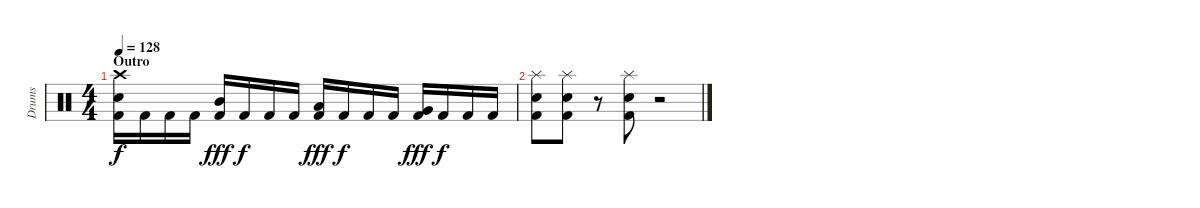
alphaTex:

\track ("Drums" "Drums") {instrument percussion}
\staff {score}
\articulation defaults
\ts (4 4)
\section ("" "Outro")
\tempo 128
\clef neutral
\ks c
("Crash high (hit)" "Electric Snare (hit)" "Kick (hit) 2").16{dy f} "Kick (hit) 2".16 "Kick (hit) 2".16 "Kick (hit) 2".16 ("Mid Tom (hit)" "Kick (hit) 2").16{dy fff} "Kick (hit) 2".16{dy f} "Kick (hit) 2".16 "Kick (hit) 2".16 ("Low Tom (hit)" "Kick (hit) 2").16{dy fff} "Kick (hit) 2".16{dy f} "Kick (hit) 2".16 "Kick (hit) 2".16 ("Very Low Tom (hit)" "Kick (hit) 2").16{dy fff} "Kick (hit) 2".16{dy f} "Kick (hit) 2".16 "Kick (hit) 2".16 |
("Splash (hit)" "Electric Snare (hit)" "Kick (hit) 2").8 ("Splash (hit)" "Electric Snare (hit)" "Kick (hit) 2").8 r.8 ("Splash (hit)" "Electric Snare (hit)" "Kick (hit) 2").8 r.2
